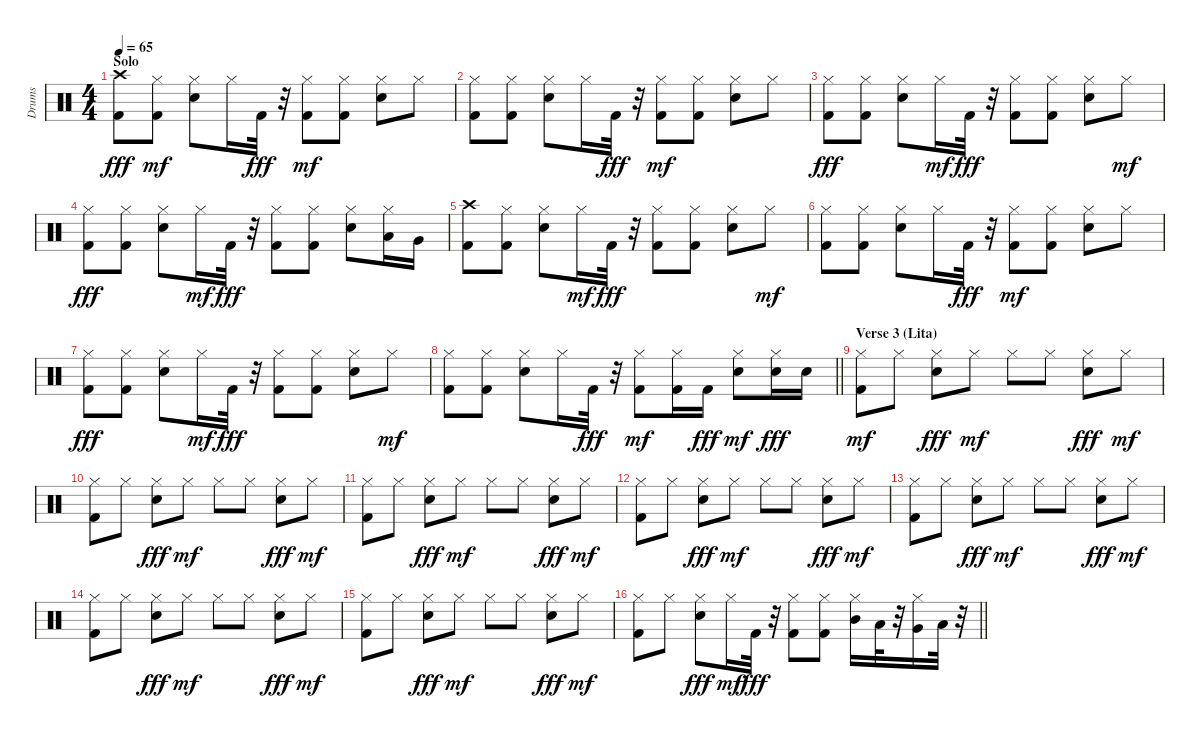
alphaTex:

\track ("Drums" "Drums") {instrument percussion}
\staff {score}
\articulation defaults
\ts (4 4)
\section ("" "Solo")
\tempo 65
\clef neutral
\ks c
("Kick (hit) 2" "Crash high (hit)").8{dy fff} ("Kick (hit) 2" "Hi-Hat (closed)").8{dy mf} ("Snare (hit) 2" "Hi-Hat (closed)").8 "Hi-Hat (closed)".16 "Kick (hit) 2".32{dy fff} r.32 ("Kick (hit) 2" "Hi-Hat (closed)").8{dy mf} ("Kick (hit) 2" "Hi-Hat (closed)").8 ("Snare (hit) 2" "Hi-Hat (closed)").8 "Hi-Hat (closed)".8 |
("Kick (hit) 2" "Hi-Hat (closed)").8 ("Kick (hit) 2" "Hi-Hat (closed)").8 ("Snare (hit) 2" "Hi-Hat (closed)").8 "Hi-Hat (closed)".16 "Kick (hit) 2".32{dy fff} r.32 ("Kick (hit) 2" "Hi-Hat (closed)").8{dy mf} ("Kick (hit) 2" "Hi-Hat (closed)").8 ("Snare (hit) 2" "Hi-Hat (closed)").8 "Hi-Hat (closed)".8 |
("Hi-Hat (closed)" "Kick (hit) 2").8{dy fff} ("Hi-Hat (closed)" "Kick (hit) 2").8 ("Hi-Hat (closed)" "Snare (hit) 2").8 "Hi-Hat (closed)".16{dy mf} "Kick (hit) 2".32{dy fff} r.32 ("Hi-Hat (closed)" "Kick (hit) 2").8 ("Hi-Hat (closed)" "Kick (hit) 2").8 ("Hi-Hat (closed)" "Snare (hit) 2").8 "Hi-Hat (closed)".8{dy mf} |
("Hi-Hat (closed)" "Kick (hit) 2").8{dy fff} ("Hi-Hat (closed)" "Kick (hit) 2").8 ("Hi-Hat (closed)" "Snare (hit) 2").8 "Hi-Hat (closed)".16{dy mf} "Kick (hit) 2".32{dy fff} r.32 ("Hi-Hat (closed)" "Kick (hit) 2").8 ("Hi-Hat (closed)" "Kick (hit) 2").8 ("Hi-Hat (closed)" "Snare (hit) 2").8 ("Hi-Hat (closed)" "Low Tom (hit)").16 "Very Low Tom (hit)".16 |
("Crash high (hit)" "Kick (hit) 2").8 ("Hi-Hat (closed)" "Kick (hit) 2").8 ("Hi-Hat (closed)" "Snare (hit) 2").8 "Hi-Hat (closed)".16{dy mf} "Kick (hit) 2".32{dy fff} r.32 ("Hi-Hat (closed)" "Kick (hit) 2").8 ("Hi-Hat (closed)" "Kick (hit) 2").8 ("Hi-Hat (closed)" "Snare (hit) 2").8 "Hi-Hat (closed)".8{dy mf} |
("Kick (hit) 2" "Hi-Hat (closed)").8 ("Kick (hit) 2" "Hi-Hat (closed)").8 ("Snare (hit) 2" "Hi-Hat (closed)").8 "Hi-Hat (closed)".16 "Kick (hit) 2".32{dy fff} r.32 ("Kick (hit) 2" "Hi-Hat (closed)").8{dy mf} ("Kick (hit) 2" "Hi-Hat (closed)").8 ("Snare (hit) 2" "Hi-Hat (closed)").8 "Hi-Hat (closed)".8 |
("Hi-Hat (closed)" "Kick (hit) 2").8{dy fff} ("Hi-Hat (closed)" "Kick (hit) 2").8 ("Hi-Hat (closed)" "Snare (hit) 2").8 "Hi-Hat (closed)".16{dy mf} "Kick (hit) 2".32{dy fff} r.32 ("Hi-Hat (closed)" "Kick (hit) 2").8 ("Hi-Hat (closed)" "Kick (hit) 2").8 ("Hi-Hat (closed)" "Snare (hit) 2").8 "Hi-Hat (closed)".8{dy mf} |
\barLineRight lightlight
("Kick (hit) 2" "Hi-Hat (closed)").8 ("Kick (hit) 2" "Hi-Hat (closed)").8 ("Snare (hit) 2" "Hi-Hat (closed)").8 "Hi-Hat (closed)".16 "Kick (hit) 2".32{dy fff} r.32 ("Kick (hit) 2" "Hi-Hat (closed)").8{dy mf} ("Kick (hit) 2" "Hi-Hat (closed)").16 "Kick (hit) 2".16{dy fff} ("Snare (hit) 2" "Hi-Hat (closed)").8{dy mf} ("Hi-Hat (closed)" "Snare (hit) 2").16{dy fff} "Snare (hit) 2".16 |
\section ("" "Verse 3 (Lita)")
("Kick (hit) 2" "Hi-Hat (closed)").8{dy mf} "Hi-Hat (closed)".8 ("Hi-Hat (closed)" "Snare (hit) 2").8{dy fff} "Hi-Hat (closed)".8{dy mf} "Hi-Hat (closed)".8 "Hi-Hat (closed)".8 ("Hi-Hat (closed)" "Snare (hit) 2").8{dy fff} "Hi-Hat (closed)".8{dy mf} |
("Kick (hit) 2" "Hi-Hat (closed)").8 "Hi-Hat (closed)".8 ("Hi-Hat (closed)" "Snare (hit) 2").8{dy fff} "Hi-Hat (closed)".8{dy mf} "Hi-Hat (closed)".8 "Hi-Hat (closed)".8 ("Hi-Hat (closed)" "Snare (hit) 2").8{dy fff} "Hi-Hat (closed)".8{dy mf} |
("Kick (hit) 2" "Hi-Hat (closed)").8 "Hi-Hat (closed)".8 ("Hi-Hat (closed)" "Snare (hit) 2").8{dy fff} "Hi-Hat (closed)".8{dy mf} "Hi-Hat (closed)".8 "Hi-Hat (closed)".8 ("Hi-Hat (closed)" "Snare (hit) 2").8{dy fff} "Hi-Hat (closed)".8{dy mf} |
("Kick (hit) 2" "Hi-Hat (closed)").8 "Hi-Hat (closed)".8 ("Hi-Hat (closed)" "Snare (hit) 2").8{dy fff} "Hi-Hat (closed)".8{dy mf} "Hi-Hat (closed)".8 "Hi-Hat (closed)".8 ("Hi-Hat (closed)" "Snare (hit) 2").8{dy fff} "Hi-Hat (closed)".8{dy mf} |
("Kick (hit) 2" "Hi-Hat (closed)").8 "Hi-Hat (closed)".8 ("Hi-Hat (closed)" "Snare (hit) 2").8{dy fff} "Hi-Hat (closed)".8{dy mf} "Hi-Hat (closed)".8 "Hi-Hat (closed)".8 ("Hi-Hat (closed)" "Snare (hit) 2").8{dy fff} "Hi-Hat (closed)".8{dy mf} |
("Kick (hit) 2" "Hi-Hat (closed)").8 "Hi-Hat (closed)".8 ("Hi-Hat (closed)" "Snare (hit) 2").8{dy fff} "Hi-Hat (closed)".8{dy mf} "Hi-Hat (closed)".8 "Hi-Hat (closed)".8 ("Hi-Hat (closed)" "Snare (hit) 2").8{dy fff} "Hi-Hat (closed)".8{dy mf} |
("Kick (hit) 2" "Hi-Hat (closed)").8 "Hi-Hat (closed)".8 ("Hi-Hat (closed)" "Snare (hit) 2").8{dy fff} "Hi-Hat (closed)".8{dy mf} "Hi-Hat (closed)".8 "Hi-Hat (closed)".8 ("Hi-Hat (closed)" "Snare (hit) 2").8{dy fff} "Hi-Hat (closed)".8{dy mf} |
\barLineRight lightlight
("Kick (hit) 2" "Hi-Hat (closed)").8 "Hi-Hat (closed)".8 ("Hi-Hat (closed)" "Snare (hit) 2").8{dy fff} "Hi-Hat (closed)".16{dy mf} "Kick (hit) 2".32{dy fff} r.32 ("Hi-Hat (closed)" "Kick (hit) 2").8 ("Hi-Hat (closed)" "Kick (hit) 2").8 ("Hi-Hat (closed)" "Mid Tom (hit)").16 "Low Tom (hit)".32 r.32 ("Hi-Hat (closed)" "Very Low Tom (hit)").16 "Low Floor Tom (hit)".32 r.32
